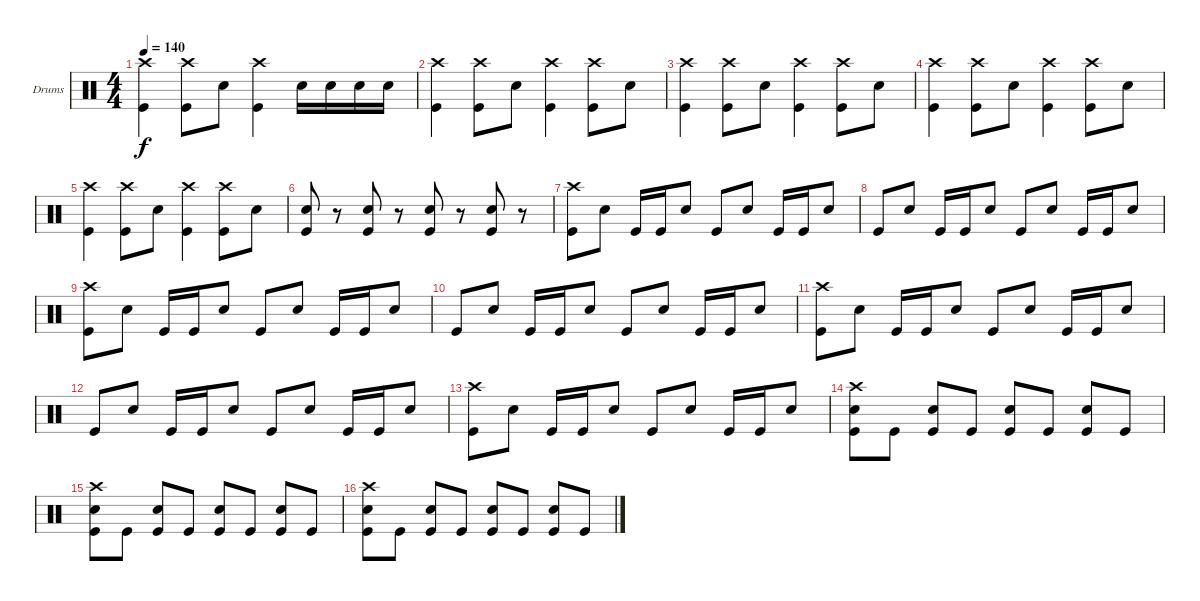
\bracketExtendMode groupsimilarinstruments
\firstSystemTrackNameOrientation horizontal
\otherSystemsTrackNameOrientation horizontal
\track ("Ryan Seamen" "Drums") {instrument percussion}
\staff {score}
\articulation defaults
\ts (4 4)
\tempo 140
\clef neutral
\ks c
("Crash high (hit)" "Kick (hit)").4{dy f} ("Crash high (hit)" "Kick (hit)").8 "Snare (hit) 2".8 ("Crash high (hit)" "Kick (hit)").4 "Snare (hit) 2".16 "Snare (hit) 2".16 "Snare (hit) 2".16 "Snare (hit) 2".16 |
("Crash high (hit)" "Kick (hit)").4 ("Crash high (hit)" "Kick (hit)").8 "Snare (hit) 2".8 ("Crash high (hit)" "Kick (hit)").4 ("Crash high (hit)" "Kick (hit)").8 "Snare (hit) 2".8 |
("Crash high (hit)" "Kick (hit)").4 ("Crash high (hit)" "Kick (hit)").8 "Snare (hit) 2".8 ("Crash high (hit)" "Kick (hit)").4 ("Crash high (hit)" "Kick (hit)").8 "Snare (hit) 2".8 |
("Crash high (hit)" "Kick (hit)").4 ("Crash high (hit)" "Kick (hit)").8 "Snare (hit) 2".8 ("Crash high (hit)" "Kick (hit)").4 ("Crash high (hit)" "Kick (hit)").8 "Snare (hit) 2".8 |
("Crash high (hit)" "Kick (hit)").4 ("Crash high (hit)" "Kick (hit)").8 "Snare (hit) 2".8 ("Crash high (hit)" "Kick (hit)").4 ("Crash high (hit)" "Kick (hit)").8 "Snare (hit) 2".8 |
("Snare (hit) 2" "Kick (hit)").8 r.8 ("Snare (hit) 2" "Kick (hit)").8 r.8 ("Snare (hit) 2" "Kick (hit)").8 r.8 ("Snare (hit) 2" "Kick (hit)").8 r.8 |
("Crash high (hit)" "Kick (hit)").8 "Snare (hit) 2".8 "Kick (hit)".16 "Kick (hit)".16 "Snare (hit) 2".8 "Kick (hit)".8 "Snare (hit) 2".8 "Kick (hit)".16 "Kick (hit)".16 "Snare (hit) 2".8 |
"Kick (hit)".8 "Snare (hit) 2".8 "Kick (hit)".16 "Kick (hit)".16 "Snare (hit) 2".8 "Kick (hit)".8 "Snare (hit) 2".8 "Kick (hit)".16 "Kick (hit)".16 "Snare (hit) 2".8 |
("Crash high (hit)" "Kick (hit)").8 "Snare (hit) 2".8 "Kick (hit)".16 "Kick (hit)".16 "Snare (hit) 2".8 "Kick (hit)".8 "Snare (hit) 2".8 "Kick (hit)".16 "Kick (hit)".16 "Snare (hit) 2".8 |
"Kick (hit)".8 "Snare (hit) 2".8 "Kick (hit)".16 "Kick (hit)".16 "Snare (hit) 2".8 "Kick (hit)".8 "Snare (hit) 2".8 "Kick (hit)".16 "Kick (hit)".16 "Snare (hit) 2".8 |
("Crash high (hit)" "Kick (hit)").8 "Snare (hit) 2".8 "Kick (hit)".16 "Kick (hit)".16 "Snare (hit) 2".8 "Kick (hit)".8 "Snare (hit) 2".8 "Kick (hit)".16 "Kick (hit)".16 "Snare (hit) 2".8 |
"Kick (hit)".8 "Snare (hit) 2".8 "Kick (hit)".16 "Kick (hit)".16 "Snare (hit) 2".8 "Kick (hit)".8 "Snare (hit) 2".8 "Kick (hit)".16 "Kick (hit)".16 "Snare (hit) 2".8 |
("Crash high (hit)" "Kick (hit)").8 "Snare (hit) 2".8 "Kick (hit)".16 "Kick (hit)".16 "Snare (hit) 2".8 "Kick (hit)".8 "Snare (hit) 2".8 "Kick (hit)".16 "Kick (hit)".16 "Snare (hit) 2".8 |
("Crash high (hit)" "Snare (hit) 2" "Kick (hit)").8 "Kick (hit)".8 ("Snare (hit) 2" "Kick (hit)").8 "Kick (hit)".8 ("Snare (hit) 2" "Kick (hit)").8 "Kick (hit)".8 ("Snare (hit) 2" "Kick (hit)").8 "Kick (hit)".8 |
("Crash high (hit)" "Snare (hit) 2" "Kick (hit)").8 "Kick (hit)".8 ("Snare (hit) 2" "Kick (hit)").8 "Kick (hit)".8 ("Snare (hit) 2" "Kick (hit)").8 "Kick (hit)".8 ("Snare (hit) 2" "Kick (hit)").8 "Kick (hit)".8 |
("Crash high (hit)" "Snare (hit) 2" "Kick (hit)").8 "Kick (hit)".8 ("Snare (hit) 2" "Kick (hit)").8 "Kick (hit)".8 ("Snare (hit) 2" "Kick (hit)").8 "Kick (hit)".8 ("Snare (hit) 2" "Kick (hit)").8 "Kick (hit)".8
